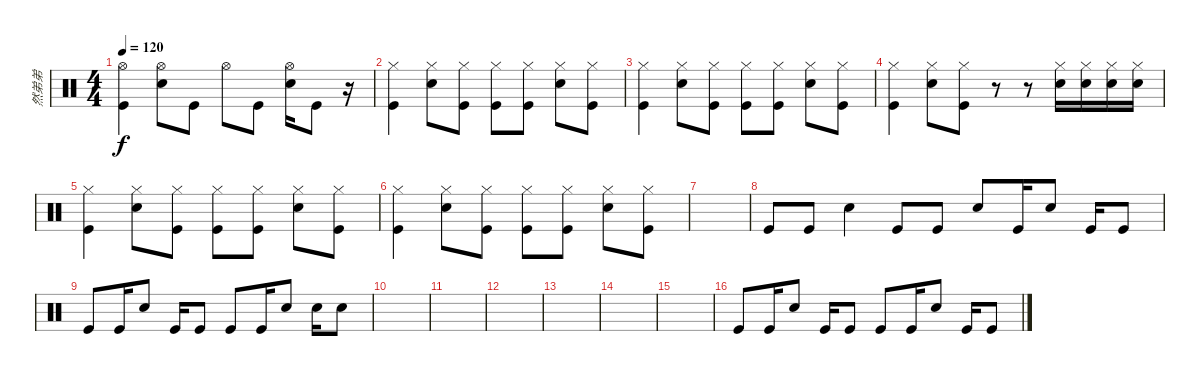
\track ("然弟弟" "然弟弟") {instrument percussion}
\staff {score}
\articulation defaults
\ts (4 4)
\tempo 120
\clef neutral
\ks c
("Hi-Hat (open)" "Kick (hit)").4{dy f} ("Hi-Hat (open)" "Electric Snare (hit)").8 "Kick (hit)".8 "Hi-Hat (open)".8 "Kick (hit)".8 ("Hi-Hat (open)" "Electric Snare (hit)").16 "Kick (hit)".8 r.16 |
("Hi-Hat (closed)" "Kick (hit)").4 ("Hi-Hat (closed)" "Electric Snare (hit)").8 ("Hi-Hat (closed)" "Kick (hit)").8 ("Hi-Hat (closed)" "Kick (hit)").8 ("Hi-Hat (closed)" "Kick (hit)").8 ("Hi-Hat (closed)" "Electric Snare (hit)").8 ("Hi-Hat (closed)" "Kick (hit)").8 |
("Hi-Hat (closed)" "Kick (hit)").4 ("Hi-Hat (closed)" "Electric Snare (hit)").8 ("Hi-Hat (closed)" "Kick (hit)").8 ("Hi-Hat (closed)" "Kick (hit)").8 ("Hi-Hat (closed)" "Kick (hit)").8 ("Hi-Hat (closed)" "Electric Snare (hit)").8 ("Hi-Hat (closed)" "Kick (hit)").8 |
("Hi-Hat (closed)" "Kick (hit)").4 ("Hi-Hat (closed)" "Electric Snare (hit)").8 ("Hi-Hat (closed)" "Kick (hit)").8 r.8 r.8 ("Hi-Hat (closed)" "Electric Snare (hit)").16 ("Hi-Hat (closed)" "Electric Snare (hit)").16 ("Hi-Hat (closed)" "Electric Snare (hit)").16 ("Hi-Hat (closed)" "Electric Snare (hit)").16 |
("Hi-Hat (closed)" "Kick (hit)").4 ("Hi-Hat (closed)" "Electric Snare (hit)").8 ("Hi-Hat (closed)" "Kick (hit)").8 ("Hi-Hat (closed)" "Kick (hit)").8 ("Hi-Hat (closed)" "Kick (hit)").8 ("Hi-Hat (closed)" "Electric Snare (hit)").8 ("Hi-Hat (closed)" "Kick (hit)").8 |
("Hi-Hat (closed)" "Kick (hit)").4 ("Hi-Hat (closed)" "Electric Snare (hit)").8 ("Hi-Hat (closed)" "Kick (hit)").8 ("Hi-Hat (closed)" "Kick (hit)").8 ("Hi-Hat (closed)" "Kick (hit)").8 ("Hi-Hat (closed)" "Electric Snare (hit)").8 ("Hi-Hat (closed)" "Kick (hit)").8 |
|
"Kick (hit)".8 "Kick (hit)".8 "Electric Snare (hit)".4 "Kick (hit)".8 "Kick (hit)".8 "Electric Snare (hit)".8 "Kick (hit)".16 "Electric Snare (hit)".8 "Kick (hit)".16 "Kick (hit)".8 |
"Kick (hit)".8 "Kick (hit)".16 "Electric Snare (hit)".8 "Kick (hit)".16 "Kick (hit)".8 "Kick (hit)".8 "Kick (hit)".16 "Electric Snare (hit)".8 "Electric Snare (hit)".16 "Electric Snare (hit)".8 |
|
|
|
|
|
|
"Kick (hit)".8 "Kick (hit)".16 "Electric Snare (hit)".8 "Kick (hit)".16 "Kick (hit)".8 "Kick (hit)".8 "Kick (hit)".16 "Electric Snare (hit)".8 "Kick (hit)".16 "Kick (hit)".8
